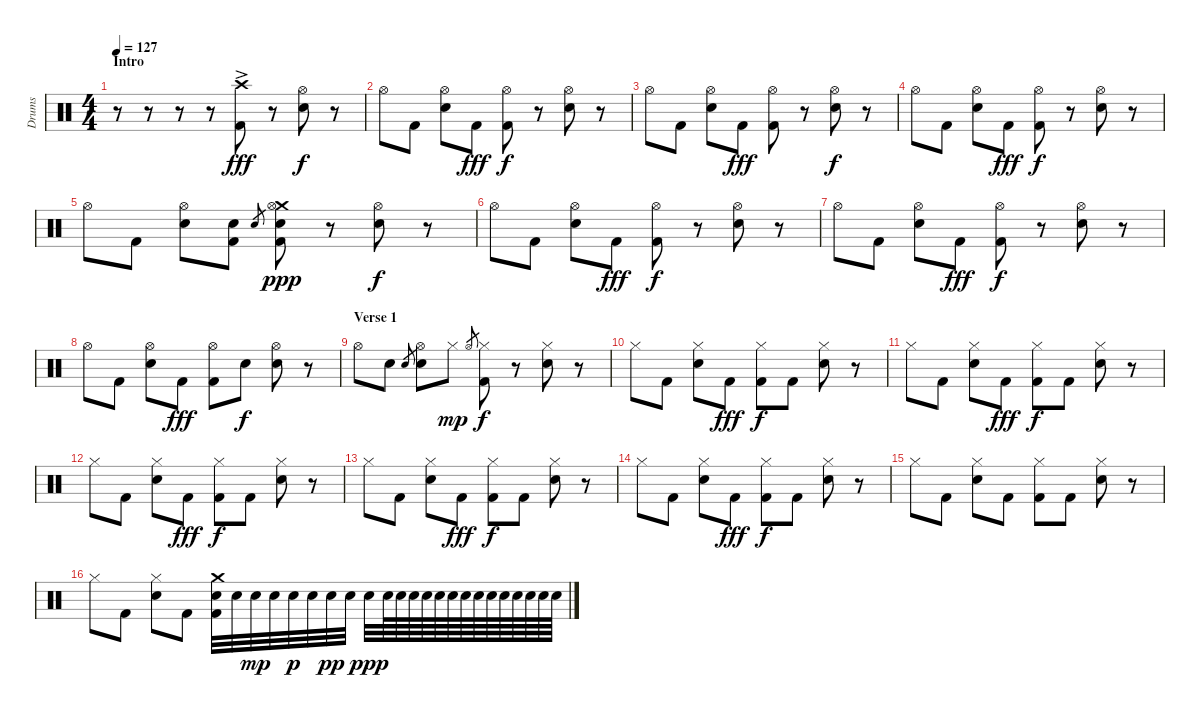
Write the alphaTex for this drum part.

\track ("Drums" "Drums") {instrument percussion}
\staff {score}
\articulation defaults
\ts (4 4)
\section ("" "Intro")
\tempo 127
\clef neutral
\ks c
r.8{dy fff} r.8 r.8 r.8 ("Crash high (hit)"{ac} "Kick (hit) 2").8 r.8 ("Hi-Hat (open)" "Electric Snare (hit)").8{dy f} r.8 |
"Hi-Hat (open)".8 "Kick (hit) 2".8 ("Hi-Hat (open)" "Electric Snare (hit)").8 "Kick (hit) 2".8{dy fff} ("Hi-Hat (open)" "Kick (hit) 2").8{dy f} r.8 ("Hi-Hat (open)" "Electric Snare (hit)").8 r.8 |
"Hi-Hat (open)".8 "Kick (hit) 2".8 ("Hi-Hat (open)" "Electric Snare (hit)").8 "Kick (hit) 2".8{dy fff} ("Hi-Hat (open)" "Kick (hit) 2").8 r.8 ("Hi-Hat (open)" "Electric Snare (hit)").8{dy f} r.8 |
"Hi-Hat (open)".8 "Kick (hit) 2".8 ("Hi-Hat (open)" "Electric Snare (hit)").8 "Kick (hit) 2".8{dy fff} ("Hi-Hat (open)" "Kick (hit) 2").8{dy f} r.8 ("Hi-Hat (open)" "Electric Snare (hit)").8 r.8 |
"Hi-Hat (open)".8 "Kick (hit) 2".8 ("Hi-Hat (open)" "Electric Snare (hit)").8 ("Electric Snare (hit)" "Kick (hit) 2").8 "Electric Snare (hit)".8{gr} ("Crash medium (hit)" "Hi-Hat (open)" "Electric Snare (hit)" "Kick (hit) 2").8{dy ppp} r.8 ("Hi-Hat (open)" "Electric Snare (hit)").8{dy f} r.8 |
"Hi-Hat (open)".8 "Kick (hit) 2".8 ("Hi-Hat (open)" "Electric Snare (hit)").8 "Kick (hit) 2".8{dy fff} ("Hi-Hat (open)" "Kick (hit) 2").8{dy f} r.8 ("Hi-Hat (open)" "Electric Snare (hit)").8 r.8 |
"Hi-Hat (open)".8 "Kick (hit) 2".8 ("Hi-Hat (open)" "Electric Snare (hit)").8 "Kick (hit) 2".8{dy fff} ("Hi-Hat (open)" "Kick (hit) 2").8{dy f} r.8 ("Hi-Hat (open)" "Electric Snare (hit)").8 r.8 |
"Hi-Hat (open)".8 "Kick (hit) 2".8 ("Hi-Hat (open)" "Electric Snare (hit)").8 "Kick (hit) 2".8{dy fff} ("Hi-Hat (open)" "Kick (hit) 2").8 "Electric Snare (hit)".8{dy f} ("Hi-Hat (open)" "Electric Snare (hit)").8 r.8 |
\section ("" "Verse 1")
"Hi-Hat (open)".8 "Electric Snare (hit)".8 "Electric Snare (hit)".8{gr} ("Hi-Hat (open)" "Electric Snare (hit)").8 "Hi-Hat (closed)".8{dy mp} "Hi-Hat (open)".8{gr} ("Hi-Hat (closed)" "Kick (hit) 2").8{dy f} r.8 ("Hi-Hat (closed)" "Electric Snare (hit)").8 r.8 |
"Hi-Hat (closed)".8 "Kick (hit) 2".8 ("Hi-Hat (closed)" "Electric Snare (hit)").8 "Kick (hit) 2".8{dy fff} ("Hi-Hat (closed)" "Kick (hit) 2").8{dy f} "Kick (hit) 2".8 ("Hi-Hat (closed)" "Electric Snare (hit)").8 r.8 |
"Hi-Hat (closed)".8 "Kick (hit) 2".8 ("Hi-Hat (closed)" "Electric Snare (hit)").8 "Kick (hit) 2".8{dy fff} ("Hi-Hat (closed)" "Kick (hit) 2").8{dy f} "Kick (hit) 2".8 ("Hi-Hat (closed)" "Electric Snare (hit)").8 r.8 |
"Hi-Hat (closed)".8 "Kick (hit) 2".8 ("Hi-Hat (closed)" "Electric Snare (hit)").8 "Kick (hit) 2".8{dy fff} ("Hi-Hat (closed)" "Kick (hit) 2").8{dy f} "Kick (hit) 2".8 ("Hi-Hat (closed)" "Electric Snare (hit)").8 r.8 |
"Hi-Hat (closed)".8 "Kick (hit) 2".8 ("Hi-Hat (closed)" "Electric Snare (hit)").8 "Kick (hit) 2".8{dy fff} ("Hi-Hat (closed)" "Kick (hit) 2").8{dy f} "Kick (hit) 2".8 ("Hi-Hat (closed)" "Electric Snare (hit)").8 r.8 |
"Hi-Hat (closed)".8 "Kick (hit) 2".8 ("Hi-Hat (closed)" "Electric Snare (hit)").8 "Kick (hit) 2".8{dy fff} ("Hi-Hat (closed)" "Kick (hit) 2").8{dy f} "Kick (hit) 2".8 ("Hi-Hat (closed)" "Electric Snare (hit)").8 r.8 |
"Hi-Hat (closed)".8 "Kick (hit) 2".8 ("Hi-Hat (closed)" "Electric Snare (hit)").8 "Kick (hit) 2".8 ("Hi-Hat (closed)" "Kick (hit) 2").8 "Kick (hit) 2".8 ("Hi-Hat (closed)" "Electric Snare (hit)").8 r.8 |
"Hi-Hat (closed)".8 "Kick (hit) 2".8 ("Hi-Hat (closed)" "Electric Snare (hit)").8 "Kick (hit) 2".8 ("Crash medium (hit)" "Electric Snare (hit)" "Kick (hit) 2").32 "Electric Snare (hit)".32 "Electric Snare (hit)".32{dy mp} "Electric Snare (hit)".32 "Electric Snare (hit)".32{dy p} "Electric Snare (hit)".32 "Electric Snare (hit)".32{dy pp} "Electric Snare (hit)".32 "Electric Snare (hit)".32{dy ppp} "Electric Snare (hit)".64 "Electric Snare (hit)".64 "Electric Snare (hit)".64 "Electric Snare (hit)".64 "Electric Snare (hit)".64 "Electric Snare (hit)".64 "Electric Snare (hit)".64 "Electric Snare (hit)".64 "Electric Snare (hit)".64 "Electric Snare (hit)".64 "Electric Snare (hit)".64 "Electric Snare (hit)".64 "Electric Snare (hit)".64 "Electric Snare (hit)".64
